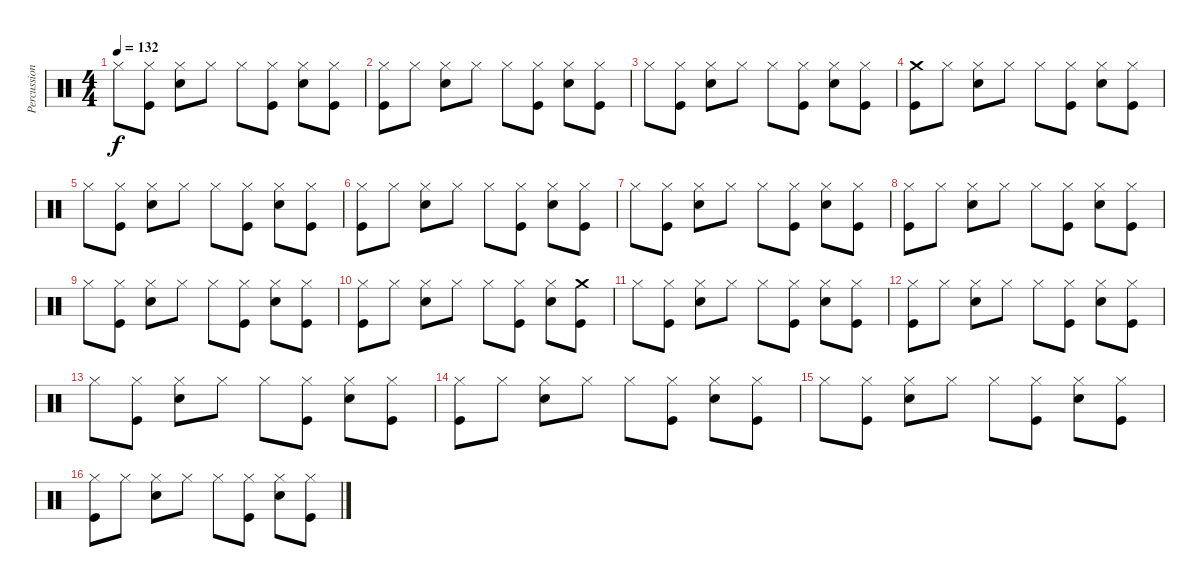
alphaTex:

\track ("Percussion" "Percussion") {instrument percussion}
\staff {score}
\articulation defaults
\ts (4 4)
\tempo 132
\clef neutral
\ks c "Hi-Hat (closed)".8{dy f}
("Hi-Hat (closed)" "Kick (hit)").8 ("Hi-Hat (closed)" "Snare (hit) 2").8 "Hi-Hat (closed)".8 "Hi-Hat (closed)".8 ("Hi-Hat (closed)" "Kick (hit)").8 ("Hi-Hat (closed)" "Snare (hit) 2").8 ("Hi-Hat (closed)" "Kick (hit)").8 |
("Hi-Hat (closed)" "Kick (hit)").8 "Hi-Hat (closed)".8 ("Hi-Hat (closed)" "Snare (hit) 2").8 "Hi-Hat (closed)".8 "Hi-Hat (closed)".8 ("Hi-Hat (closed)" "Kick (hit)").8 ("Hi-Hat (closed)" "Snare (hit) 2").8 ("Hi-Hat (closed)" "Kick (hit)").8 |
"Hi-Hat (closed)".8 ("Hi-Hat (closed)" "Kick (hit)").8 ("Hi-Hat (closed)" "Snare (hit) 2").8 "Hi-Hat (closed)".8 "Hi-Hat (closed)".8 ("Hi-Hat (closed)" "Kick (hit)").8 ("Hi-Hat (closed)" "Snare (hit) 2").8 ("Hi-Hat (closed)" "Kick (hit)").8 |
("Crash medium (hit)" "Kick (hit)").8 "Hi-Hat (closed)".8 ("Hi-Hat (closed)" "Snare (hit) 2").8 "Hi-Hat (closed)".8 "Hi-Hat (closed)".8 ("Hi-Hat (closed)" "Kick (hit)").8 ("Hi-Hat (closed)" "Snare (hit) 2").8 ("Hi-Hat (closed)" "Kick (hit)").8 |
"Hi-Hat (closed)".8 ("Hi-Hat (closed)" "Kick (hit)").8 ("Hi-Hat (closed)" "Snare (hit) 2").8 "Hi-Hat (closed)".8 "Hi-Hat (closed)".8 ("Hi-Hat (closed)" "Kick (hit)").8 ("Hi-Hat (closed)" "Snare (hit) 2").8 ("Hi-Hat (closed)" "Kick (hit)").8 |
("Hi-Hat (closed)" "Kick (hit)").8 "Hi-Hat (closed)".8 ("Hi-Hat (closed)" "Snare (hit) 2").8 "Hi-Hat (closed)".8 "Hi-Hat (closed)".8 ("Hi-Hat (closed)" "Kick (hit)").8 ("Hi-Hat (closed)" "Snare (hit) 2").8 ("Hi-Hat (closed)" "Kick (hit)").8 |
"Hi-Hat (closed)".8 ("Hi-Hat (closed)" "Kick (hit)").8 ("Hi-Hat (closed)" "Snare (hit) 2").8 "Hi-Hat (closed)".8 "Hi-Hat (closed)".8 ("Hi-Hat (closed)" "Kick (hit)").8 ("Hi-Hat (closed)" "Snare (hit) 2").8 ("Hi-Hat (closed)" "Kick (hit)").8 |
("Hi-Hat (closed)" "Kick (hit)").8 "Hi-Hat (closed)".8 ("Hi-Hat (closed)" "Snare (hit) 2").8 "Hi-Hat (closed)".8 "Hi-Hat (closed)".8 ("Hi-Hat (closed)" "Kick (hit)").8 ("Hi-Hat (closed)" "Snare (hit) 2").8 ("Hi-Hat (closed)" "Kick (hit)").8 |
"Hi-Hat (closed)".8 ("Hi-Hat (closed)" "Kick (hit)").8 ("Hi-Hat (closed)" "Snare (hit) 2").8 "Hi-Hat (closed)".8 "Hi-Hat (closed)".8 ("Hi-Hat (closed)" "Kick (hit)").8 ("Hi-Hat (closed)" "Snare (hit) 2").8 ("Hi-Hat (closed)" "Kick (hit)").8 |
("Hi-Hat (closed)" "Kick (hit)").8 "Hi-Hat (closed)".8 ("Hi-Hat (closed)" "Snare (hit) 2").8 "Hi-Hat (closed)".8 "Hi-Hat (closed)".8 ("Hi-Hat (closed)" "Kick (hit)").8 ("Hi-Hat (closed)" "Snare (hit) 2").8 ("Crash medium (hit)" "Kick (hit)").8 |
"Hi-Hat (closed)".8 ("Hi-Hat (closed)" "Kick (hit)").8 ("Hi-Hat (closed)" "Snare (hit) 2").8 "Hi-Hat (closed)".8 "Hi-Hat (closed)".8 ("Hi-Hat (closed)" "Kick (hit)").8 ("Hi-Hat (closed)" "Snare (hit) 2").8 ("Hi-Hat (closed)" "Kick (hit)").8 |
("Hi-Hat (closed)" "Kick (hit)").8 "Hi-Hat (closed)".8 ("Hi-Hat (closed)" "Snare (hit) 2").8 "Hi-Hat (closed)".8 "Hi-Hat (closed)".8 ("Hi-Hat (closed)" "Kick (hit)").8 ("Hi-Hat (closed)" "Snare (hit) 2").8 ("Hi-Hat (closed)" "Kick (hit)").8 |
"Hi-Hat (closed)".8 ("Hi-Hat (closed)" "Kick (hit)").8 ("Hi-Hat (closed)" "Snare (hit) 2").8 "Hi-Hat (closed)".8 "Hi-Hat (closed)".8 ("Hi-Hat (closed)" "Kick (hit)").8 ("Hi-Hat (closed)" "Snare (hit) 2").8 ("Hi-Hat (closed)" "Kick (hit)").8 |
("Hi-Hat (closed)" "Kick (hit)").8 "Hi-Hat (closed)".8 ("Hi-Hat (closed)" "Snare (hit) 2").8 "Hi-Hat (closed)".8 "Hi-Hat (closed)".8 ("Hi-Hat (closed)" "Kick (hit)").8 ("Hi-Hat (closed)" "Snare (hit) 2").8 ("Hi-Hat (closed)" "Kick (hit)").8 |
"Hi-Hat (closed)".8 ("Hi-Hat (closed)" "Kick (hit)").8 ("Hi-Hat (closed)" "Snare (hit) 2").8 "Hi-Hat (closed)".8 "Hi-Hat (closed)".8 ("Hi-Hat (closed)" "Kick (hit)").8 ("Hi-Hat (closed)" "Snare (hit) 2").8 ("Hi-Hat (closed)" "Kick (hit)").8 |
("Hi-Hat (closed)" "Kick (hit)").8 "Hi-Hat (closed)".8 ("Hi-Hat (closed)" "Snare (hit) 2").8 "Hi-Hat (closed)".8 "Hi-Hat (closed)".8 ("Hi-Hat (closed)" "Kick (hit)").8 ("Hi-Hat (closed)" "Snare (hit) 2").8 ("Hi-Hat (closed)" "Kick (hit)").8
